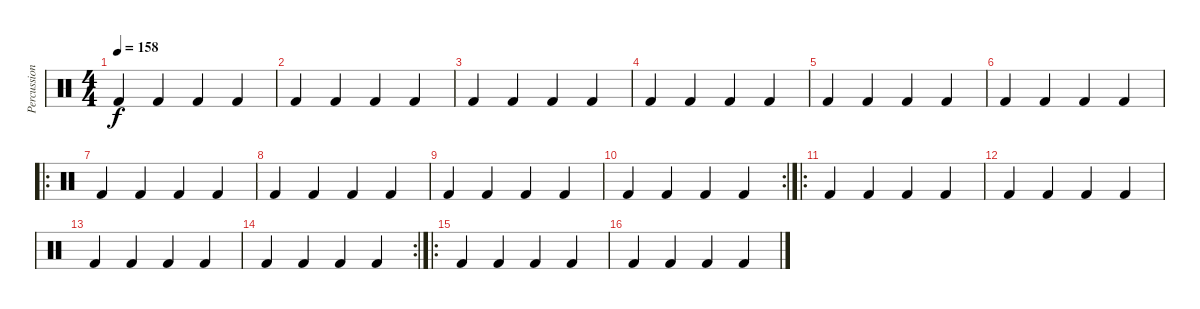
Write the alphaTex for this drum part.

\track ("Percussions" "Percussion") {instrument percussion}
\staff {score}
\articulation defaults
\ts (4 4)
\tempo 158
\clef neutral
\ks c "Kick (hit) 2".4{dy f} "Kick (hit) 2".4 "Kick (hit) 2".4 "Kick (hit) 2".4
|
"Kick (hit) 2".4 "Kick (hit) 2".4 "Kick (hit) 2".4 "Kick (hit) 2".4 |
"Kick (hit) 2".4 "Kick (hit) 2".4 "Kick (hit) 2".4 "Kick (hit) 2".4 |
"Kick (hit) 2".4 "Kick (hit) 2".4 "Kick (hit) 2".4 "Kick (hit) 2".4 |
"Kick (hit) 2".4 "Kick (hit) 2".4 "Kick (hit) 2".4 "Kick (hit) 2".4 |
"Kick (hit) 2".4 "Kick (hit) 2".4 "Kick (hit) 2".4 "Kick (hit) 2".4 |
\ro "Kick (hit) 2".4 "Kick (hit) 2".4 "Kick (hit) 2".4 "Kick (hit) 2".4
|
"Kick (hit) 2".4 "Kick (hit) 2".4 "Kick (hit) 2".4 "Kick (hit) 2".4 |
"Kick (hit) 2".4 "Kick (hit) 2".4 "Kick (hit) 2".4 "Kick (hit) 2".4 |
\rc 2 "Kick (hit) 2".4 "Kick (hit) 2".4 "Kick (hit) 2".4 "Kick (hit) 2".4
|
\ro "Kick (hit) 2".4 "Kick (hit) 2".4 "Kick (hit) 2".4 "Kick (hit) 2".4
|
"Kick (hit) 2".4 "Kick (hit) 2".4 "Kick (hit) 2".4 "Kick (hit) 2".4 |
"Kick (hit) 2".4 "Kick (hit) 2".4 "Kick (hit) 2".4 "Kick (hit) 2".4 |
\rc 2 "Kick (hit) 2".4 "Kick (hit) 2".4 "Kick (hit) 2".4 "Kick (hit) 2".4
|
\ro "Kick (hit) 2".4 "Kick (hit) 2".4 "Kick (hit) 2".4 "Kick (hit) 2".4
|
"Kick (hit) 2".4 "Kick (hit) 2".4 "Kick (hit) 2".4 "Kick (hit) 2".4
